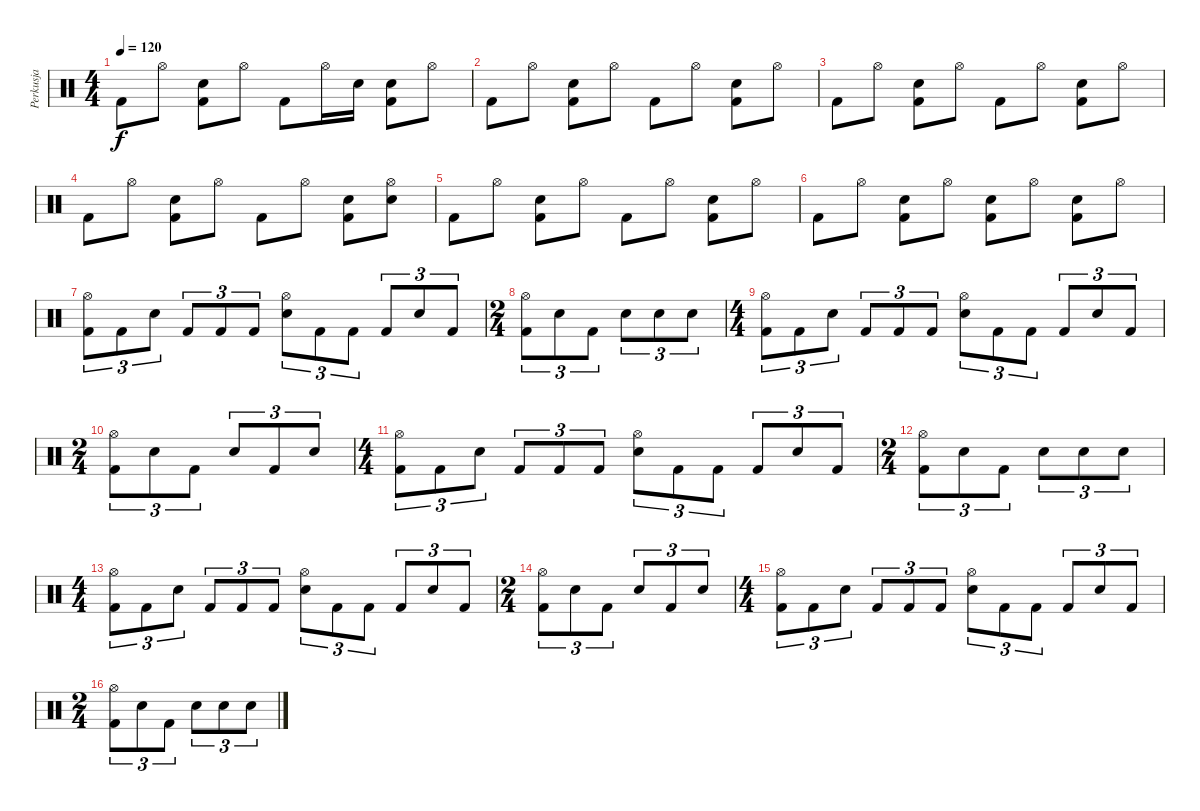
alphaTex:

\track ("Perkusja" "Perkusja") {instrument percussion}
\staff {score}
\articulation defaults
\ts (4 4)
\tempo 120
\clef neutral
\ks c "Kick (hit) 2".8{dy f} "Hi-Hat (open)".8
("Snare (hit) 2" "Kick (hit) 2").8 "Hi-Hat (open)".8 "Kick (hit) 2".8 "Hi-Hat (open)".16 "Snare (hit) 2".16 ("Snare (hit) 2" "Kick (hit) 2").8 "Hi-Hat (open)".8 |
"Kick (hit) 2".8 "Hi-Hat (open)".8 ("Snare (hit) 2" "Kick (hit) 2").8 "Hi-Hat (open)".8 "Kick (hit) 2".8 "Hi-Hat (open)".8 ("Snare (hit) 2" "Kick (hit) 2").8 "Hi-Hat (open)".8 |
"Kick (hit) 2".8 "Hi-Hat (open)".8 ("Snare (hit) 2" "Kick (hit) 2").8 "Hi-Hat (open)".8 "Kick (hit) 2".8 "Hi-Hat (open)".8 ("Snare (hit) 2" "Kick (hit) 2").8 "Hi-Hat (open)".8 |
"Kick (hit) 2".8 "Hi-Hat (open)".8 ("Snare (hit) 2" "Kick (hit) 2").8 "Hi-Hat (open)".8 "Kick (hit) 2".8 "Hi-Hat (open)".8 ("Snare (hit) 2" "Kick (hit) 2").8 ("Snare (hit) 2" "Hi-Hat (open)").8 |
"Kick (hit) 2".8 "Hi-Hat (open)".8 ("Snare (hit) 2" "Kick (hit) 2").8 "Hi-Hat (open)".8 "Kick (hit) 2".8 "Hi-Hat (open)".8 ("Snare (hit) 2" "Kick (hit) 2").8 "Hi-Hat (open)".8 |
"Kick (hit) 2".8 "Hi-Hat (open)".8 ("Snare (hit) 2" "Kick (hit) 2").8 "Hi-Hat (open)".8 ("Snare (hit) 2" "Kick (hit) 2").8 "Hi-Hat (open)".8 ("Snare (hit) 2" "Kick (hit) 2").8 "Hi-Hat (open)".8 |
("Kick (hit) 2" "Hi-Hat (open)").8{tu (3 2)} "Kick (hit) 2".8{tu (3 2)} "Snare (hit) 2".8{tu (3 2)} "Kick (hit) 2".8{tu (3 2)} "Kick (hit) 2".8{tu (3 2)} "Kick (hit) 2".8{tu (3 2)} ("Snare (hit) 2" "Hi-Hat (open)").8{tu (3 2)} "Kick (hit) 2".8{tu (3 2)} "Kick (hit) 2".8{tu (3 2)} "Kick (hit) 2".8{tu (3 2)} "Snare (hit) 2".8{tu (3 2)} "Kick (hit) 2".8{tu (3 2)} |
\ts (2 4)
("Kick (hit) 2" "Hi-Hat (open)").8{tu (3 2)} "Snare (hit) 2".8{tu (3 2)} "Kick (hit) 2".8{tu (3 2)} "Snare (hit) 2".8{tu (3 2)} "Snare (hit) 2".8{tu (3 2)} "Snare (hit) 2".8{tu (3 2)} |
\ts (4 4)
("Kick (hit) 2" "Hi-Hat (open)").8{tu (3 2)} "Kick (hit) 2".8{tu (3 2)} "Snare (hit) 2".8{tu (3 2)} "Kick (hit) 2".8{tu (3 2)} "Kick (hit) 2".8{tu (3 2)} "Kick (hit) 2".8{tu (3 2)} ("Snare (hit) 2" "Hi-Hat (open)").8{tu (3 2)} "Kick (hit) 2".8{tu (3 2)} "Kick (hit) 2".8{tu (3 2)} "Kick (hit) 2".8{tu (3 2)} "Snare (hit) 2".8{tu (3 2)} "Kick (hit) 2".8{tu (3 2)} |
\ts (2 4)
("Kick (hit) 2" "Hi-Hat (open)").8{tu (3 2)} "Snare (hit) 2".8{tu (3 2)} "Kick (hit) 2".8{tu (3 2)} "Snare (hit) 2".8{tu (3 2)} "Kick (hit) 2".8{tu (3 2)} "Snare (hit) 2".8{tu (3 2)} |
\ts (4 4)
("Kick (hit) 2" "Hi-Hat (open)").8{tu (3 2)} "Kick (hit) 2".8{tu (3 2)} "Snare (hit) 2".8{tu (3 2)} "Kick (hit) 2".8{tu (3 2)} "Kick (hit) 2".8{tu (3 2)} "Kick (hit) 2".8{tu (3 2)} ("Snare (hit) 2" "Hi-Hat (open)").8{tu (3 2)} "Kick (hit) 2".8{tu (3 2)} "Kick (hit) 2".8{tu (3 2)} "Kick (hit) 2".8{tu (3 2)} "Snare (hit) 2".8{tu (3 2)} "Kick (hit) 2".8{tu (3 2)} |
\ts (2 4)
("Kick (hit) 2" "Hi-Hat (open)").8{tu (3 2)} "Snare (hit) 2".8{tu (3 2)} "Kick (hit) 2".8{tu (3 2)} "Snare (hit) 2".8{tu (3 2)} "Snare (hit) 2".8{tu (3 2)} "Snare (hit) 2".8{tu (3 2)} |
\ts (4 4)
("Kick (hit) 2" "Hi-Hat (open)").8{tu (3 2)} "Kick (hit) 2".8{tu (3 2)} "Snare (hit) 2".8{tu (3 2)} "Kick (hit) 2".8{tu (3 2)} "Kick (hit) 2".8{tu (3 2)} "Kick (hit) 2".8{tu (3 2)} ("Snare (hit) 2" "Hi-Hat (open)").8{tu (3 2)} "Kick (hit) 2".8{tu (3 2)} "Kick (hit) 2".8{tu (3 2)} "Kick (hit) 2".8{tu (3 2)} "Snare (hit) 2".8{tu (3 2)} "Kick (hit) 2".8{tu (3 2)} |
\ts (2 4)
("Kick (hit) 2" "Hi-Hat (open)").8{tu (3 2)} "Snare (hit) 2".8{tu (3 2)} "Kick (hit) 2".8{tu (3 2)} "Snare (hit) 2".8{tu (3 2)} "Kick (hit) 2".8{tu (3 2)} "Snare (hit) 2".8{tu (3 2)} |
\ts (4 4)
("Kick (hit) 2" "Hi-Hat (open)").8{tu (3 2)} "Kick (hit) 2".8{tu (3 2)} "Snare (hit) 2".8{tu (3 2)} "Kick (hit) 2".8{tu (3 2)} "Kick (hit) 2".8{tu (3 2)} "Kick (hit) 2".8{tu (3 2)} ("Snare (hit) 2" "Hi-Hat (open)").8{tu (3 2)} "Kick (hit) 2".8{tu (3 2)} "Kick (hit) 2".8{tu (3 2)} "Kick (hit) 2".8{tu (3 2)} "Snare (hit) 2".8{tu (3 2)} "Kick (hit) 2".8{tu (3 2)} |
\ts (2 4)
("Kick (hit) 2" "Hi-Hat (open)").8{tu (3 2)} "Snare (hit) 2".8{tu (3 2)} "Kick (hit) 2".8{tu (3 2)} "Snare (hit) 2".8{tu (3 2)} "Snare (hit) 2".8{tu (3 2)} "Snare (hit) 2".8{tu (3 2)}
